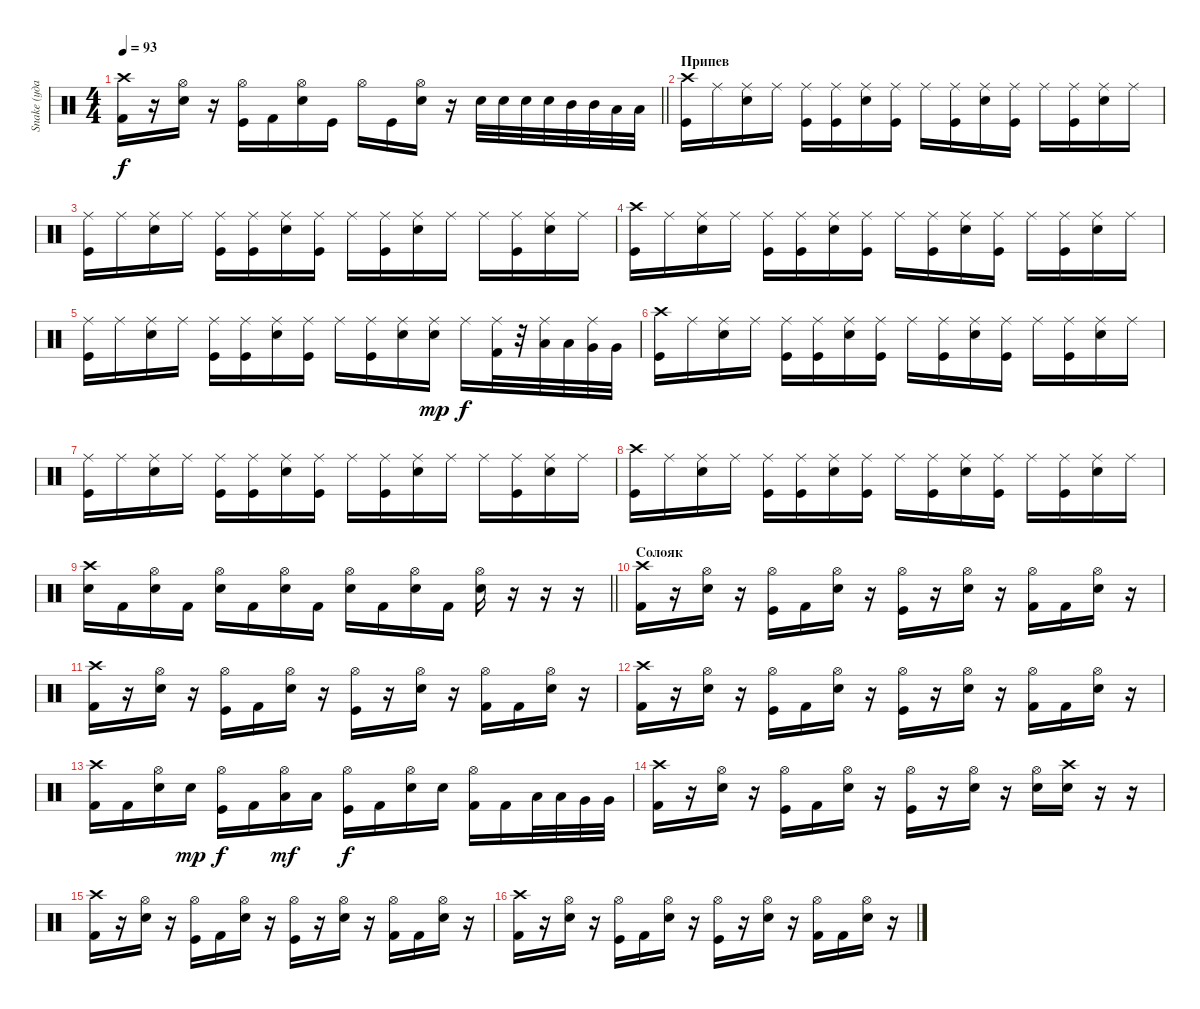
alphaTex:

\track ("Snake (ударные)" "Snake (уда") {instrument percussion}
\staff {score}
\articulation defaults
\ts (4 4)
\tempo 93
\clef neutral
\barLineRight lightlight
\ks c
("Crash high (hit)" "Kick (hit) 2").16{dy f} r.16 ("Hi-Hat (open)" "Snare (hit) 2").16 r.16 ("Hi-Hat (open)" "Kick (hit)").16 "Kick (hit) 2".16 ("Hi-Hat (open)" "Snare (hit) 2").16 "Kick (hit)".16 "Hi-Hat (open)".16 "Kick (hit)".16 ("Hi-Hat (open)" "Snare (hit) 2").16 r.16 "Snare (hit) 2".32 "Snare (hit) 2".32 "Snare (hit) 2".32 "Snare (hit) 2".32 "Mid Tom (hit)".32 "Mid Tom (hit)".32 "Low Tom (hit)".32 "Low Tom (hit)".32 |
\section ("" "Припев")
("Crash high (hit)" "Kick (hit)").16 "Ride (middle)".16 ("Ride (middle)" "Snare (hit) 2").16 "Ride (middle)".16 ("Ride (middle)" "Kick (hit)").16 ("Ride (middle)" "Kick (hit)").16 ("Ride (middle)" "Snare (hit) 2").16 ("Ride (middle)" "Kick (hit)").16 "Ride (middle)".16 ("Ride (middle)" "Kick (hit)").16 ("Ride (middle)" "Snare (hit) 2").16 ("Ride (middle)" "Kick (hit)").16 "Ride (middle)".16 ("Ride (middle)" "Kick (hit)").16 ("Ride (middle)" "Snare (hit) 2").16 "Ride (middle)".16 |
("Ride (middle)" "Kick (hit)").16 "Ride (middle)".16 ("Ride (middle)" "Snare (hit) 2").16 "Ride (middle)".16 ("Ride (middle)" "Kick (hit)").16 ("Ride (middle)" "Kick (hit)").16 ("Ride (middle)" "Snare (hit) 2").16 ("Ride (middle)" "Kick (hit)").16 "Ride (middle)".16 ("Ride (middle)" "Kick (hit)").16 ("Ride (middle)" "Snare (hit) 2").16 "Ride (middle)".16 "Ride (middle)".16 ("Ride (middle)" "Kick (hit)").16 ("Ride (middle)" "Snare (hit) 2").16 "Ride (middle)".16 |
("Crash high (hit)" "Kick (hit)").16 "Ride (middle)".16 ("Ride (middle)" "Snare (hit) 2").16 "Ride (middle)".16 ("Ride (middle)" "Kick (hit)").16 ("Ride (middle)" "Kick (hit)").16 ("Ride (middle)" "Snare (hit) 2").16 ("Ride (middle)" "Kick (hit)").16 "Ride (middle)".16 ("Ride (middle)" "Kick (hit)").16 ("Ride (middle)" "Snare (hit) 2").16 ("Ride (middle)" "Kick (hit)").16 "Ride (middle)".16 ("Ride (middle)" "Kick (hit)").16 ("Ride (middle)" "Snare (hit) 2").16 "Ride (middle)".16 |
("Ride (middle)" "Kick (hit)").16 "Ride (middle)".16 ("Ride (middle)" "Snare (hit) 2").16 "Ride (middle)".16 ("Ride (middle)" "Kick (hit)").16 ("Ride (middle)" "Kick (hit)").16 ("Ride (middle)" "Snare (hit) 2").16 ("Ride (middle)" "Kick (hit)").16 "Ride (middle)".16 ("Ride (middle)" "Kick (hit)").16 ("Ride (middle)" "Snare (hit) 2").16 ("Ride (middle)" "Snare (hit) 2").16{dy mp} "Ride (middle)".16{dy f} ("Ride (middle)" "Kick (hit) 2").32 r.32 ("Ride (middle)" "Low Tom (hit)").32 "Low Tom (hit)".32 ("Ride (middle)" "Very Low Tom (hit)").32 "Very Low Tom (hit)".32 |
("Crash high (hit)" "Kick (hit)").16 "Ride (middle)".16 ("Ride (middle)" "Snare (hit) 2").16 "Ride (middle)".16 ("Ride (middle)" "Kick (hit)").16 ("Ride (middle)" "Kick (hit)").16 ("Ride (middle)" "Snare (hit) 2").16 ("Ride (middle)" "Kick (hit)").16 "Ride (middle)".16 ("Ride (middle)" "Kick (hit)").16 ("Ride (middle)" "Snare (hit) 2").16 ("Ride (middle)" "Kick (hit)").16 "Ride (middle)".16 ("Ride (middle)" "Kick (hit)").16 ("Ride (middle)" "Snare (hit) 2").16 "Ride (middle)".16 |
("Ride (middle)" "Kick (hit)").16 "Ride (middle)".16 ("Ride (middle)" "Snare (hit) 2").16 "Ride (middle)".16 ("Ride (middle)" "Kick (hit)").16 ("Ride (middle)" "Kick (hit)").16 ("Ride (middle)" "Snare (hit) 2").16 ("Ride (middle)" "Kick (hit)").16 "Ride (middle)".16 ("Ride (middle)" "Kick (hit)").16 ("Ride (middle)" "Snare (hit) 2").16 "Ride (middle)".16 "Ride (middle)".16 ("Ride (middle)" "Kick (hit)").16 ("Ride (middle)" "Snare (hit) 2").16 "Ride (middle)".16 |
("Crash high (hit)" "Kick (hit)").16 "Ride (middle)".16 ("Ride (middle)" "Snare (hit) 2").16 "Ride (middle)".16 ("Ride (middle)" "Kick (hit)").16 ("Ride (middle)" "Kick (hit)").16 ("Ride (middle)" "Snare (hit) 2").16 ("Ride (middle)" "Kick (hit)").16 "Ride (middle)".16 ("Ride (middle)" "Kick (hit)").16 ("Ride (middle)" "Snare (hit) 2").16 ("Ride (middle)" "Kick (hit)").16 "Ride (middle)".16 ("Ride (middle)" "Kick (hit)").16 ("Ride (middle)" "Snare (hit) 2").16 "Ride (middle)".16 |
\barLineRight lightlight
("Snare (hit) 2" "Crash high (hit)").16 "Kick (hit) 2".16 ("Snare (hit) 2" "Hi-Hat (open)").16 "Kick (hit) 2".16 ("Snare (hit) 2" "Hi-Hat (open)").16 "Kick (hit) 2".16 ("Snare (hit) 2" "Hi-Hat (open)").16 "Kick (hit) 2".16 ("Snare (hit) 2" "Hi-Hat (open)").16 "Kick (hit) 2".16 ("Snare (hit) 2" "Hi-Hat (open)").16 "Kick (hit) 2".16 ("Snare (hit) 2" "Hi-Hat (open)").16 r.16 r.16 r.16 |
\section ("" "Солояк")
("Crash high (hit)" "Kick (hit) 2").16 r.16 ("Hi-Hat (open)" "Snare (hit) 2").16 r.16 ("Hi-Hat (open)" "Kick (hit)").16 "Kick (hit) 2".16 ("Hi-Hat (open)" "Snare (hit) 2").16 r.16 ("Hi-Hat (open)" "Kick (hit)").16 r.16 ("Hi-Hat (open)" "Snare (hit) 2").16 r.16 ("Hi-Hat (open)" "Kick (hit) 2").16 "Kick (hit) 2".16 ("Hi-Hat (open)" "Snare (hit) 2").16 r.16 |
("Crash high (hit)" "Kick (hit) 2").16 r.16 ("Hi-Hat (open)" "Snare (hit) 2").16 r.16 ("Hi-Hat (open)" "Kick (hit)").16 "Kick (hit) 2".16 ("Hi-Hat (open)" "Snare (hit) 2").16 r.16 ("Hi-Hat (open)" "Kick (hit)").16 r.16 ("Hi-Hat (open)" "Snare (hit) 2").16 r.16 ("Hi-Hat (open)" "Kick (hit) 2").16 "Kick (hit) 2".16 ("Hi-Hat (open)" "Snare (hit) 2").16 r.16 |
("Crash high (hit)" "Kick (hit) 2").16 r.16 ("Hi-Hat (open)" "Snare (hit) 2").16 r.16 ("Hi-Hat (open)" "Kick (hit)").16 "Kick (hit) 2".16 ("Hi-Hat (open)" "Snare (hit) 2").16 r.16 ("Hi-Hat (open)" "Kick (hit)").16 r.16 ("Hi-Hat (open)" "Snare (hit) 2").16 r.16 ("Hi-Hat (open)" "Kick (hit) 2").16 "Kick (hit) 2".16 ("Hi-Hat (open)" "Snare (hit) 2").16 r.16 |
("Crash high (hit)" "Kick (hit) 2").16 "Kick (hit) 2".16 ("Hi-Hat (open)" "Snare (hit) 2").16 "Snare (hit) 2".16{dy mp} ("Hi-Hat (open)" "Kick (hit)").16{dy f} "Kick (hit) 2".16 ("Hi-Hat (open)" "Low Tom (hit)").16{dy mf} "Low Tom (hit)".16 ("Hi-Hat (open)" "Kick (hit)").16{dy f} "Kick (hit) 2".16 ("Hi-Hat (open)" "Snare (hit) 2").16 "Snare (hit) 2".16 ("Hi-Hat (open)" "Kick (hit) 2").16 "Kick (hit) 2".16 "Low Tom (hit)".32 "Low Tom (hit)".32 "Very Low Tom (hit)".32 "Very Low Tom (hit)".32 |
("Crash high (hit)" "Kick (hit) 2").16 r.16 ("Hi-Hat (open)" "Snare (hit) 2").16 r.16 ("Hi-Hat (open)" "Kick (hit)").16 "Kick (hit) 2".16 ("Hi-Hat (open)" "Snare (hit) 2").16 r.16 ("Hi-Hat (open)" "Kick (hit)").16 r.16 ("Hi-Hat (open)" "Snare (hit) 2").16 r.16 ("Hi-Hat (open)" "Snare (hit) 2").16 ("Crash high (hit)" "Snare (hit) 2").16 r.16 r.16 |
("Crash high (hit)" "Kick (hit) 2").16 r.16 ("Hi-Hat (open)" "Snare (hit) 2").16 r.16 ("Hi-Hat (open)" "Kick (hit)").16 "Kick (hit) 2".16 ("Hi-Hat (open)" "Snare (hit) 2").16 r.16 ("Hi-Hat (open)" "Kick (hit)").16 r.16 ("Hi-Hat (open)" "Snare (hit) 2").16 r.16 ("Hi-Hat (open)" "Kick (hit) 2").16 "Kick (hit) 2".16 ("Hi-Hat (open)" "Snare (hit) 2").16 r.16 |
("Crash high (hit)" "Kick (hit) 2").16 r.16 ("Hi-Hat (open)" "Snare (hit) 2").16 r.16 ("Hi-Hat (open)" "Kick (hit)").16 "Kick (hit) 2".16 ("Hi-Hat (open)" "Snare (hit) 2").16 r.16 ("Hi-Hat (open)" "Kick (hit)").16 r.16 ("Hi-Hat (open)" "Snare (hit) 2").16 r.16 ("Hi-Hat (open)" "Kick (hit) 2").16 "Kick (hit) 2".16 ("Hi-Hat (open)" "Snare (hit) 2").16 r.16
